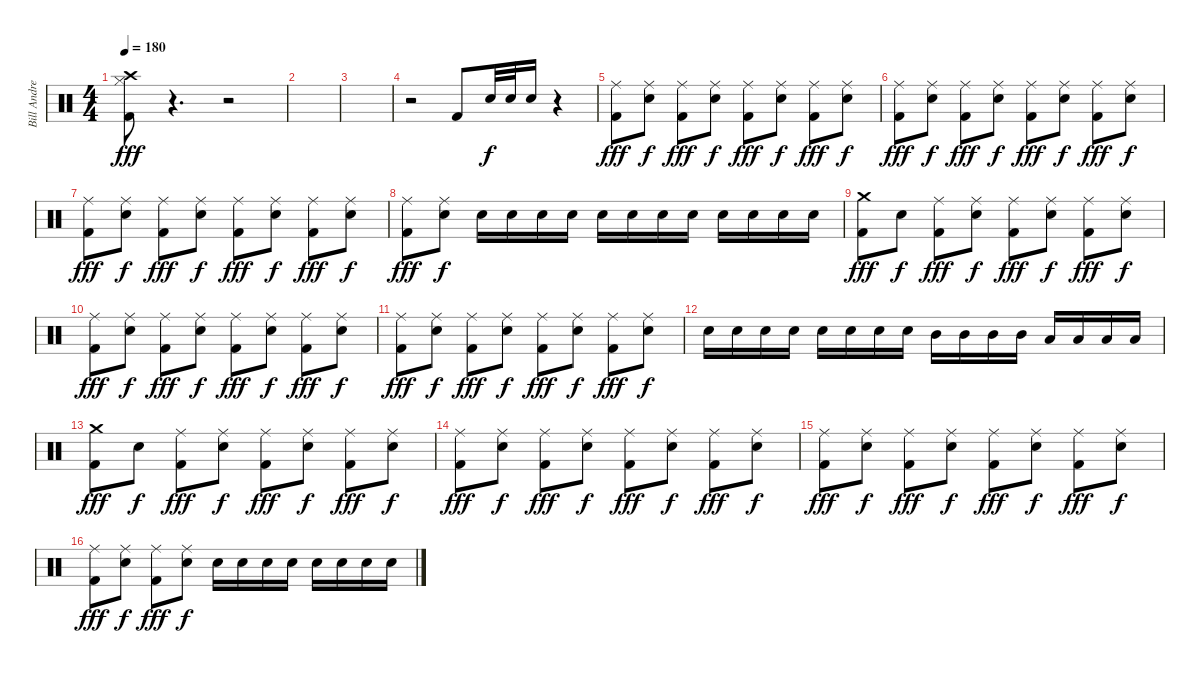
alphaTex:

\track ("Bill Andrews" "Bill Andre") {instrument percussion}
\staff {score}
\articulation defaults
\ts (4 4)
\tempo 180
\clef neutral
\ks c
("Crash high (hit)" "Hi-Hat (closed)" "Kick (hit) 2").8{dy fff} r.4{d} r.2 |
|
|
r.2 "Kick (hit) 2".8 "Electric Snare (hit)".32{dy f} "Electric Snare (hit)".32 "Electric Snare (hit)".16 r.4 |
("Ride (middle)" "Kick (hit) 2").8{dy fff} ("Ride (middle)" "Electric Snare (hit)").8{dy f} ("Ride (middle)" "Kick (hit) 2").8{dy fff} ("Ride (middle)" "Electric Snare (hit)").8{dy f} ("Ride (middle)" "Kick (hit) 2").8{dy fff} ("Ride (middle)" "Electric Snare (hit)").8{dy f} ("Ride (middle)" "Kick (hit) 2").8{dy fff} ("Ride (middle)" "Electric Snare (hit)").8{dy f} |
("Ride (middle)" "Kick (hit) 2").8{dy fff} ("Ride (middle)" "Electric Snare (hit)").8{dy f} ("Ride (middle)" "Kick (hit) 2").8{dy fff} ("Ride (middle)" "Electric Snare (hit)").8{dy f} ("Ride (middle)" "Kick (hit) 2").8{dy fff} ("Ride (middle)" "Electric Snare (hit)").8{dy f} ("Ride (middle)" "Kick (hit) 2").8{dy fff} ("Ride (middle)" "Electric Snare (hit)").8{dy f} |
("Ride (middle)" "Kick (hit) 2").8{dy fff} ("Ride (middle)" "Electric Snare (hit)").8{dy f} ("Ride (middle)" "Kick (hit) 2").8{dy fff} ("Ride (middle)" "Electric Snare (hit)").8{dy f} ("Ride (middle)" "Kick (hit) 2").8{dy fff} ("Ride (middle)" "Electric Snare (hit)").8{dy f} ("Ride (middle)" "Kick (hit) 2").8{dy fff} ("Ride (middle)" "Electric Snare (hit)").8{dy f} |
("Ride (middle)" "Kick (hit) 2").8{dy fff} ("Ride (middle)" "Electric Snare (hit)").8{dy f} "Electric Snare (hit)".16 "Electric Snare (hit)".16 "Electric Snare (hit)".16 "Electric Snare (hit)".16 "Electric Snare (hit)".16 "Electric Snare (hit)".16 "Electric Snare (hit)".16 "Electric Snare (hit)".16 "Electric Snare (hit)".16 "Electric Snare (hit)".16 "Electric Snare (hit)".16 "Electric Snare (hit)".16 |
("Crash medium (hit)" "Kick (hit) 2").8{dy fff} "Electric Snare (hit)".8{dy f} ("Ride (middle)" "Kick (hit) 2").8{dy fff} ("Ride (middle)" "Electric Snare (hit)").8{dy f} ("Ride (middle)" "Kick (hit) 2").8{dy fff} ("Ride (middle)" "Electric Snare (hit)").8{dy f} ("Ride (middle)" "Kick (hit) 2").8{dy fff} ("Ride (middle)" "Electric Snare (hit)").8{dy f} |
("Ride (middle)" "Kick (hit) 2").8{dy fff} ("Ride (middle)" "Electric Snare (hit)").8{dy f} ("Ride (middle)" "Kick (hit) 2").8{dy fff} ("Ride (middle)" "Electric Snare (hit)").8{dy f} ("Ride (middle)" "Kick (hit) 2").8{dy fff} ("Ride (middle)" "Electric Snare (hit)").8{dy f} ("Ride (middle)" "Kick (hit) 2").8{dy fff} ("Ride (middle)" "Electric Snare (hit)").8{dy f} |
("Ride (middle)" "Kick (hit) 2").8{dy fff} ("Ride (middle)" "Electric Snare (hit)").8{dy f} ("Ride (middle)" "Kick (hit) 2").8{dy fff} ("Ride (middle)" "Electric Snare (hit)").8{dy f} ("Ride (middle)" "Kick (hit) 2").8{dy fff} ("Ride (middle)" "Electric Snare (hit)").8{dy f} ("Ride (middle)" "Kick (hit) 2").8{dy fff} ("Ride (middle)" "Electric Snare (hit)").8{dy f} |
"Electric Snare (hit)".16 "Electric Snare (hit)".16 "Electric Snare (hit)".16 "Electric Snare (hit)".16 "Electric Snare (hit)".16 "Electric Snare (hit)".16 "Electric Snare (hit)".16 "Electric Snare (hit)".16 "Mid Tom (hit)".16 "Mid Tom (hit)".16 "Mid Tom (hit)".16 "Mid Tom (hit)".16 "Low Tom (hit)".16 "Low Tom (hit)".16 "Low Tom (hit)".16 "Low Tom (hit)".16 |
("Crash medium (hit)" "Kick (hit) 2").8{dy fff} "Electric Snare (hit)".8{dy f} ("Ride (middle)" "Kick (hit) 2").8{dy fff} ("Ride (middle)" "Electric Snare (hit)").8{dy f} ("Ride (middle)" "Kick (hit) 2").8{dy fff} ("Ride (middle)" "Electric Snare (hit)").8{dy f} ("Ride (middle)" "Kick (hit) 2").8{dy fff} ("Ride (middle)" "Electric Snare (hit)").8{dy f} |
("Ride (middle)" "Kick (hit) 2").8{dy fff} ("Ride (middle)" "Electric Snare (hit)").8{dy f} ("Ride (middle)" "Kick (hit) 2").8{dy fff} ("Ride (middle)" "Electric Snare (hit)").8{dy f} ("Ride (middle)" "Kick (hit) 2").8{dy fff} ("Ride (middle)" "Electric Snare (hit)").8{dy f} ("Ride (middle)" "Kick (hit) 2").8{dy fff} ("Ride (middle)" "Electric Snare (hit)").8{dy f} |
("Ride (middle)" "Kick (hit) 2").8{dy fff} ("Ride (middle)" "Electric Snare (hit)").8{dy f} ("Ride (middle)" "Kick (hit) 2").8{dy fff} ("Ride (middle)" "Electric Snare (hit)").8{dy f} ("Ride (middle)" "Kick (hit) 2").8{dy fff} ("Ride (middle)" "Electric Snare (hit)").8{dy f} ("Ride (middle)" "Kick (hit) 2").8{dy fff} ("Ride (middle)" "Electric Snare (hit)").8{dy f} |
("Ride (middle)" "Kick (hit) 2").8{dy fff} ("Ride (middle)" "Electric Snare (hit)").8{dy f} ("Ride (middle)" "Kick (hit) 2").8{dy fff} ("Ride (middle)" "Electric Snare (hit)").8{dy f} "Electric Snare (hit)".16 "Electric Snare (hit)".16 "Electric Snare (hit)".16 "Electric Snare (hit)".16 "Electric Snare (hit)".16 "Electric Snare (hit)".16 "Electric Snare (hit)".16 "Electric Snare (hit)".16
